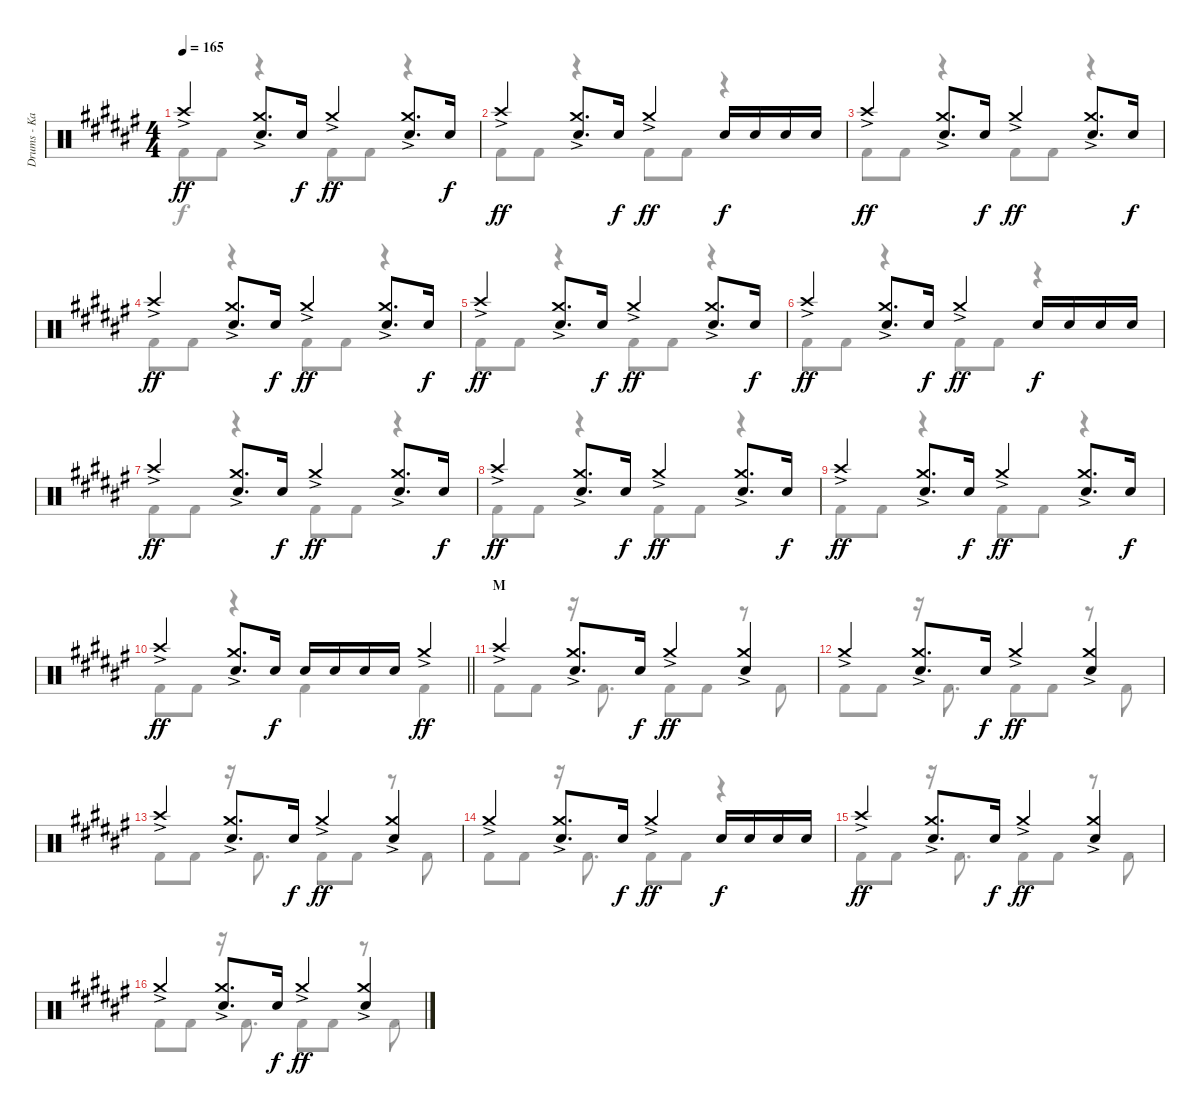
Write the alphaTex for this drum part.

\track ("Drums - Kai" "Drums - Ka") {instrument percussion}
\staff {score}
\articulation defaults
\voice
\ts (4 4)
\tempo 165
\clef neutral
\ks f# "Crash high (hit)"{ac}.4{dy ff}
("Crash medium (hit)"{ac} "Electric Snare (hit)").8{d} "Electric Snare (hit)".16{dy f} "Crash medium (hit)"{ac}.4{dy ff} ("Crash medium (hit)"{ac} "Electric Snare (hit)").8{d} "Electric Snare (hit)".16{dy f} |
"Crash high (hit)"{ac}.4{dy ff} ("Crash medium (hit)"{ac} "Electric Snare (hit)").8{d} "Electric Snare (hit)".16{dy f} "Crash medium (hit)"{ac}.4{dy ff} "Electric Snare (hit)".16{dy f} "Electric Snare (hit)".16 "Electric Snare (hit)".16 "Electric Snare (hit)".16 |
"Crash high (hit)"{ac}.4{dy ff} ("Crash medium (hit)"{ac} "Electric Snare (hit)").8{d} "Electric Snare (hit)".16{dy f} "Crash medium (hit)"{ac}.4{dy ff} ("Crash medium (hit)"{ac} "Electric Snare (hit)").8{d} "Electric Snare (hit)".16{dy f} |
"Crash high (hit)"{ac}.4{dy ff} ("Crash medium (hit)"{ac} "Electric Snare (hit)").8{d} "Electric Snare (hit)".16{dy f} "Crash medium (hit)"{ac}.4{dy ff} ("Crash medium (hit)"{ac} "Electric Snare (hit)").8{d} "Electric Snare (hit)".16{dy f} |
"Crash high (hit)"{ac}.4{dy ff} ("Crash medium (hit)"{ac} "Electric Snare (hit)").8{d} "Electric Snare (hit)".16{dy f} "Crash medium (hit)"{ac}.4{dy ff} ("Crash medium (hit)"{ac} "Electric Snare (hit)").8{d} "Electric Snare (hit)".16{dy f} |
"Crash high (hit)"{ac}.4{dy ff} ("Crash medium (hit)"{ac} "Electric Snare (hit)").8{d} "Electric Snare (hit)".16{dy f} "Crash medium (hit)"{ac}.4{dy ff} "Electric Snare (hit)".16{dy f} "Electric Snare (hit)".16 "Electric Snare (hit)".16 "Electric Snare (hit)".16 |
"Crash high (hit)"{ac}.4{dy ff} ("Crash medium (hit)"{ac} "Electric Snare (hit)").8{d} "Electric Snare (hit)".16{dy f} "Crash medium (hit)"{ac}.4{dy ff} ("Crash medium (hit)"{ac} "Electric Snare (hit)").8{d} "Electric Snare (hit)".16{dy f} |
"Crash high (hit)"{ac}.4{dy ff} ("Crash medium (hit)"{ac} "Electric Snare (hit)").8{d} "Electric Snare (hit)".16{dy f} "Crash medium (hit)"{ac}.4{dy ff} ("Crash medium (hit)"{ac} "Electric Snare (hit)").8{d} "Electric Snare (hit)".16{dy f} |
"Crash high (hit)"{ac}.4{dy ff} ("Crash medium (hit)"{ac} "Electric Snare (hit)").8{d} "Electric Snare (hit)".16{dy f} "Crash medium (hit)"{ac}.4{dy ff} ("Crash medium (hit)"{ac} "Electric Snare (hit)").8{d} "Electric Snare (hit)".16{dy f} |
\barLineRight lightlight "Crash high (hit)"{ac}.4{dy ff}
("Crash medium (hit)"{ac} "Electric Snare (hit)").8{d} "Electric Snare (hit)".16{dy f} "Electric Snare (hit)".16 "Electric Snare (hit)".16 "Electric Snare (hit)".16 "Electric Snare (hit)".16 "Crash medium (hit)"{ac}.4{dy ff} |
\section ("" "M")
"Crash high (hit)"{ac}.4 ("Crash medium (hit)"{ac} "Electric Snare (hit)").8{d} "Electric Snare (hit)".16{dy f} "Crash medium (hit)"{ac}.4{dy ff} ("Crash medium (hit)"{ac} "Electric Snare (hit)").4 |
"Crash medium (hit)"{ac}.4 ("Crash medium (hit)"{ac} "Electric Snare (hit)").8{d} "Electric Snare (hit)".16{dy f} "Crash medium (hit)"{ac}.4{dy ff} ("Crash medium (hit)"{ac} "Electric Snare (hit)").4 |
"Crash high (hit)"{ac}.4 ("Crash medium (hit)"{ac} "Electric Snare (hit)").8{d} "Electric Snare (hit)".16{dy f} "Crash medium (hit)"{ac}.4{dy ff} ("Crash medium (hit)"{ac} "Electric Snare (hit)").4 |
"Crash medium (hit)"{ac}.4 ("Crash medium (hit)"{ac} "Electric Snare (hit)").8{d} "Electric Snare (hit)".16{dy f} "Crash medium (hit)"{ac}.4{dy ff} "Electric Snare (hit)".16{dy f} "Electric Snare (hit)".16 "Electric Snare (hit)".16 "Electric Snare (hit)".16 |
"Crash high (hit)"{ac}.4{dy ff} ("Crash medium (hit)"{ac} "Electric Snare (hit)").8{d} "Electric Snare (hit)".16{dy f} "Crash medium (hit)"{ac}.4{dy ff} ("Crash medium (hit)"{ac} "Electric Snare (hit)").4 |
"Crash medium (hit)"{ac}.4 ("Crash medium (hit)"{ac} "Electric Snare (hit)").8{d} "Electric Snare (hit)".16{dy f} "Crash medium (hit)"{ac}.4{dy ff} ("Crash medium (hit)"{ac} "Electric Snare (hit)").4
\voice
\clef neutral
\ottava regular
\simile none
\ks f# "Kick (hit) 2".8{dy f} "Kick (hit) 2".8
r.4 "Kick (hit) 2".8 "Kick (hit) 2".8 r.4 |
"Kick (hit) 2".8 "Kick (hit) 2".8 r.4 "Kick (hit) 2".8 "Kick (hit) 2".8 r.4 |
"Kick (hit) 2".8 "Kick (hit) 2".8 r.4 "Kick (hit) 2".8 "Kick (hit) 2".8 r.4 |
"Kick (hit) 2".8 "Kick (hit) 2".8 r.4 "Kick (hit) 2".8 "Kick (hit) 2".8 r.4 |
"Kick (hit) 2".8 "Kick (hit) 2".8 r.4 "Kick (hit) 2".8 "Kick (hit) 2".8 r.4 |
"Kick (hit) 2".8 "Kick (hit) 2".8 r.4 "Kick (hit) 2".8 "Kick (hit) 2".8 r.4 |
"Kick (hit) 2".8 "Kick (hit) 2".8 r.4 "Kick (hit) 2".8 "Kick (hit) 2".8 r.4 |
"Kick (hit) 2".8 "Kick (hit) 2".8 r.4 "Kick (hit) 2".8 "Kick (hit) 2".8 r.4 |
"Kick (hit) 2".8 "Kick (hit) 2".8 r.4 "Kick (hit) 2".8 "Kick (hit) 2".8 r.4 |
\barLineRight lightlight "Kick (hit) 2".8 "Kick (hit) 2".8
r.4 "Kick (hit) 2".4 "Kick (hit) 2".4 |
"Kick (hit) 2".8 "Kick (hit) 2".8 r.16 "Kick (hit) 2".8{d} "Kick (hit) 2".8 "Kick (hit) 2".8 r.8 "Kick (hit) 2".8 |
"Kick (hit) 2".8 "Kick (hit) 2".8 r.16 "Kick (hit) 2".8{d} "Kick (hit) 2".8 "Kick (hit) 2".8 r.8 "Kick (hit) 2".8 |
"Kick (hit) 2".8 "Kick (hit) 2".8 r.16 "Kick (hit) 2".8{d} "Kick (hit) 2".8 "Kick (hit) 2".8 r.8 "Kick (hit) 2".8 |
"Kick (hit) 2".8 "Kick (hit) 2".8 r.16 "Kick (hit) 2".8{d} "Kick (hit) 2".8 "Kick (hit) 2".8 r.4 |
"Kick (hit) 2".8 "Kick (hit) 2".8 r.16 "Kick (hit) 2".8{d} "Kick (hit) 2".8 "Kick (hit) 2".8 r.8 "Kick (hit) 2".8 |
"Kick (hit) 2".8 "Kick (hit) 2".8 r.16 "Kick (hit) 2".8{d} "Kick (hit) 2".8 "Kick (hit) 2".8 r.8 "Kick (hit) 2".8
